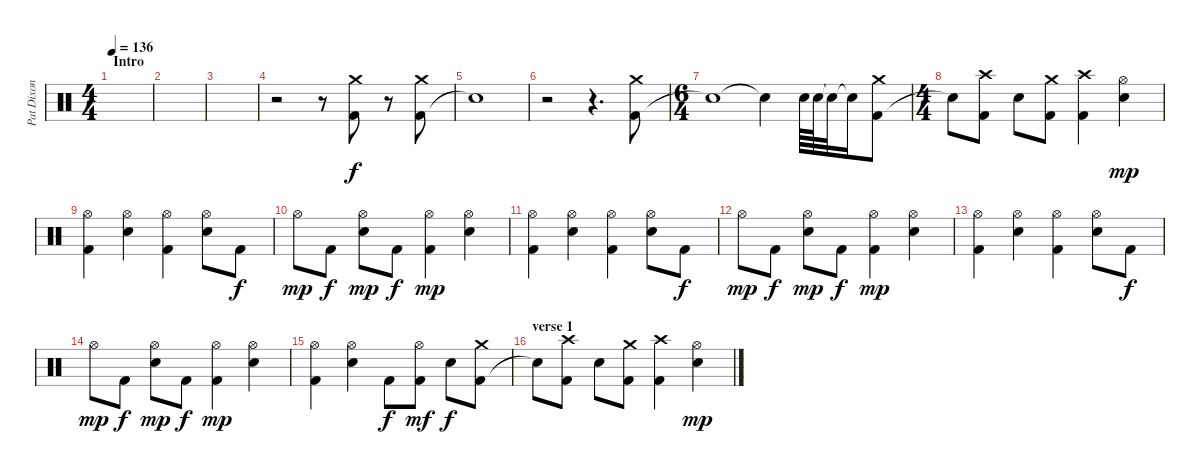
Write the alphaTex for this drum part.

\track ("Pat Dixon" "Pat Dixon") {instrument percussion}
\staff {score}
\articulation defaults
\ts (4 4)
\section ("" "Intro")
\tempo 136
\clef neutral
\ks c
|
|
|
r.2 r.8 ("Kick (hit) 2" "Crash medium (hit)").8 r.8 ("Kick (hit) 2" "Crash medium (hit)").8 |
"Snare (hit)"{t}.1 |
r.2 r.4{d} ("Kick (hit) 2" "Crash medium (hit)").8 |
\ts (6 4)
"Snare (hit)"{t}.1 "Snare (hit)"{t}.4 "Snare (hit) 2".64 "Snare (hit) 2".64 "Snare (hit) 2"{t}.32 "Snare (hit) 2"{t}.16 ("Kick (hit) 2" "Crash medium (hit)").8 |
\ts (4 4)
"Snare (hit)"{t}.8 ("Kick (hit) 2" "Crash high (hit)").8 "Snare (hit) 2".8 ("Kick (hit) 2" "Crash medium (hit)").8 ("Kick (hit) 2" "Crash high (hit)").4 ("Hi-Hat (open)" "Snare (hit) 2").4{dy mp} |
("Kick (hit) 2" "Hi-Hat (open)").4 ("Hi-Hat (open)" "Snare (hit) 2").4 ("Kick (hit) 2" "Hi-Hat (open)").4 ("Hi-Hat (open)" "Snare (hit) 2").8 "Kick (hit) 2".8{dy f} |
"Hi-Hat (open)".8{dy mp} "Kick (hit) 2".8{dy f} ("Hi-Hat (open)" "Snare (hit) 2").8{dy mp} "Kick (hit) 2".8{dy f} ("Kick (hit) 2" "Hi-Hat (open)").4{dy mp} ("Hi-Hat (open)" "Snare (hit) 2").4 |
("Kick (hit) 2" "Hi-Hat (open)").4 ("Hi-Hat (open)" "Snare (hit) 2").4 ("Kick (hit) 2" "Hi-Hat (open)").4 ("Hi-Hat (open)" "Snare (hit) 2").8 "Kick (hit) 2".8{dy f} |
"Hi-Hat (open)".8{dy mp} "Kick (hit) 2".8{dy f} ("Hi-Hat (open)" "Snare (hit) 2").8{dy mp} "Kick (hit) 2".8{dy f} ("Kick (hit) 2" "Hi-Hat (open)").4{dy mp} ("Hi-Hat (open)" "Snare (hit) 2").4 |
("Kick (hit) 2" "Hi-Hat (open)").4 ("Hi-Hat (open)" "Snare (hit) 2").4 ("Kick (hit) 2" "Hi-Hat (open)").4 ("Hi-Hat (open)" "Snare (hit) 2").8 "Kick (hit) 2".8{dy f} |
"Hi-Hat (open)".8{dy mp} "Kick (hit) 2".8{dy f} ("Hi-Hat (open)" "Snare (hit) 2").8{dy mp} "Kick (hit) 2".8{dy f} ("Kick (hit) 2" "Hi-Hat (open)").4{dy mp} ("Hi-Hat (open)" "Snare (hit) 2").4 |
("Kick (hit) 2" "Hi-Hat (open)").4 ("Hi-Hat (open)" "Snare (hit) 2").4 "Kick (hit) 2".8{dy f} ("Kick (hit) 2" "Hi-Hat (open)").8{dy mf} "Snare (hit) 2".8{dy f} ("Kick (hit) 2" "Crash medium (hit)").8 |
\section ("" "verse 1")
"Snare (hit)"{t}.8 ("Kick (hit) 2" "Crash high (hit)").8 "Snare (hit) 2".8 ("Kick (hit) 2" "Crash medium (hit)").8 ("Kick (hit) 2" "Crash high (hit)").4 ("Hi-Hat (open)" "Snare (hit) 2").4{dy mp}
